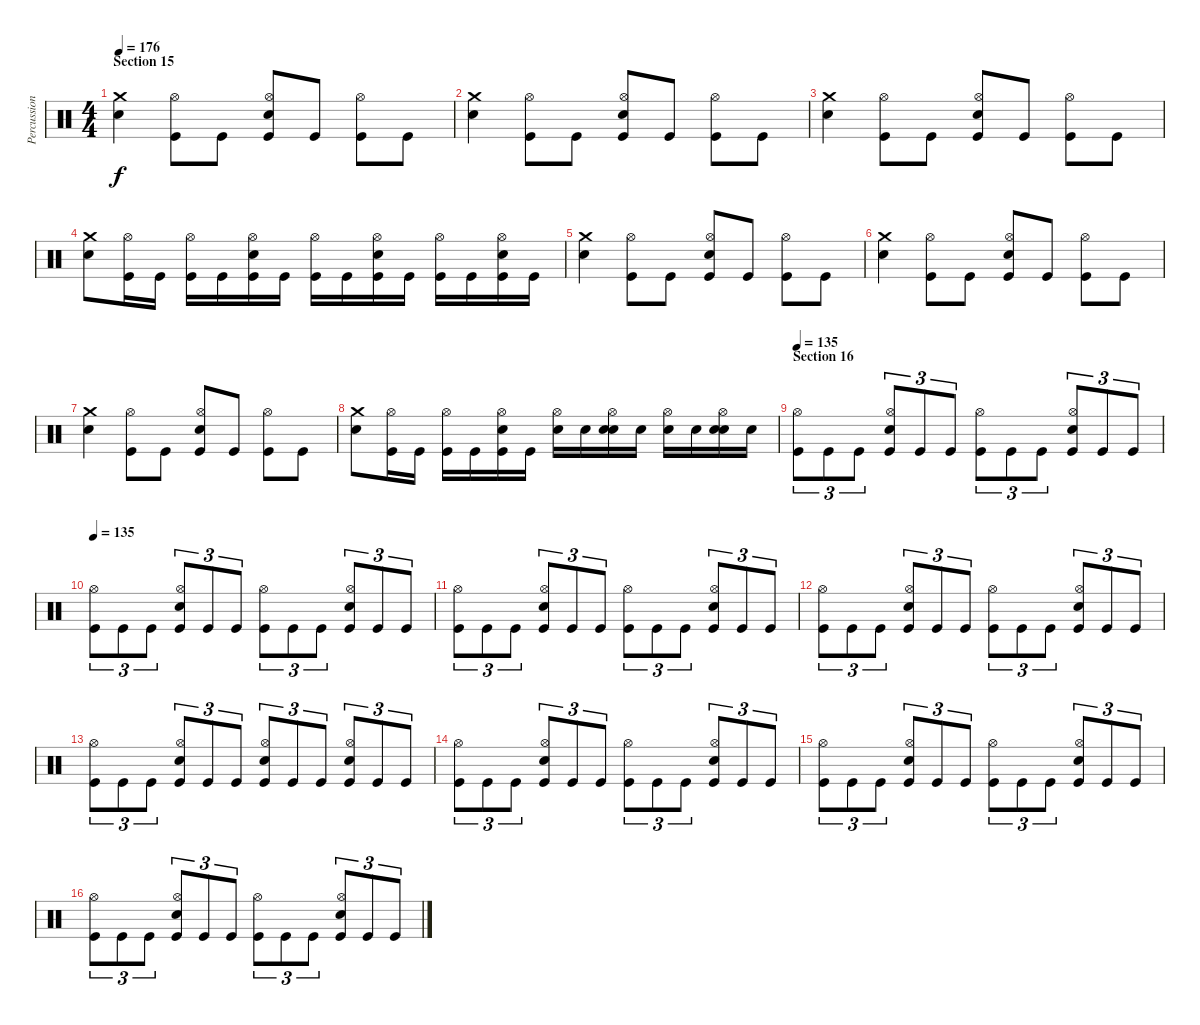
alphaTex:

\track ("Percussions" "Percussion") {instrument percussion}
\staff {score}
\articulation defaults
\ts (4 4)
\section ("" "Section 15")
\tempo 176
\clef neutral
\ks c
("Crash medium (hit)" "Electric Snare (hit)").4{dy f} ("Hi-Hat (open)" "Kick (hit)").8 "Kick (hit)".8 ("Hi-Hat (open)" "Electric Snare (hit)" "Kick (hit)").8 "Kick (hit)".8 ("Hi-Hat (open)" "Kick (hit)").8 "Kick (hit)".8 |
("Crash medium (hit)" "Electric Snare (hit)").4 ("Hi-Hat (open)" "Kick (hit)").8 "Kick (hit)".8 ("Hi-Hat (open)" "Electric Snare (hit)" "Kick (hit)").8 "Kick (hit)".8 ("Hi-Hat (open)" "Kick (hit)").8 "Kick (hit)".8 |
("Crash medium (hit)" "Electric Snare (hit)").4 ("Hi-Hat (open)" "Kick (hit)").8 "Kick (hit)".8 ("Hi-Hat (open)" "Electric Snare (hit)" "Kick (hit)").8 "Kick (hit)".8 ("Hi-Hat (open)" "Kick (hit)").8 "Kick (hit)".8 |
("Crash medium (hit)" "Electric Snare (hit)").8 ("Hi-Hat (open)" "Kick (hit)").16 "Kick (hit)".16 ("Hi-Hat (open)" "Kick (hit)").16 "Kick (hit)".16 ("Hi-Hat (open)" "Electric Snare (hit)" "Kick (hit)").16 "Kick (hit)".16 ("Hi-Hat (open)" "Kick (hit)").16 "Kick (hit)".16 ("Hi-Hat (open)" "Electric Snare (hit)" "Kick (hit)").16 "Kick (hit)".16 ("Hi-Hat (open)" "Kick (hit)").16 "Kick (hit)".16 ("Hi-Hat (open)" "Electric Snare (hit)" "Kick (hit)").16 "Kick (hit)".16 |
("Crash medium (hit)" "Electric Snare (hit)").4 ("Hi-Hat (open)" "Kick (hit)").8 "Kick (hit)".8 ("Hi-Hat (open)" "Electric Snare (hit)" "Kick (hit)").8 "Kick (hit)".8 ("Hi-Hat (open)" "Kick (hit)").8 "Kick (hit)".8 |
("Crash medium (hit)" "Electric Snare (hit)").4 ("Hi-Hat (open)" "Kick (hit)").8 "Kick (hit)".8 ("Hi-Hat (open)" "Electric Snare (hit)" "Kick (hit)").8 "Kick (hit)".8 ("Hi-Hat (open)" "Kick (hit)").8 "Kick (hit)".8 |
("Crash medium (hit)" "Electric Snare (hit)").4 ("Hi-Hat (open)" "Kick (hit)").8 "Kick (hit)".8 ("Hi-Hat (open)" "Electric Snare (hit)" "Kick (hit)").8 "Kick (hit)".8 ("Hi-Hat (open)" "Kick (hit)").8 "Kick (hit)".8 |
("Crash medium (hit)" "Electric Snare (hit)").8 ("Hi-Hat (open)" "Kick (hit)").16 "Kick (hit)".16 ("Hi-Hat (open)" "Kick (hit)").16 "Kick (hit)".16 ("Hi-Hat (open)" "Electric Snare (hit)" "Kick (hit)").16 "Kick (hit)".16 ("Hi-Hat (open)" "Electric Snare (hit)").16 "Electric Snare (hit)".16 ("Hi-Hat (open)" "Electric Snare (hit)" "Electric Snare (hit)").16 "Electric Snare (hit)".16 ("Hi-Hat (open)" "Electric Snare (hit)").16 "Electric Snare (hit)".16 ("Hi-Hat (open)" "Electric Snare (hit)" "Electric Snare (hit)").16 "Electric Snare (hit)".16 |
\section ("" "Section 16")
\tempo 135
("Hi-Hat (open)" "Kick (hit)").8{tu (3 2)} "Kick (hit)".8{tu (3 2)} "Kick (hit)".8{tu (3 2)} ("Hi-Hat (open)" "Electric Snare (hit)" "Kick (hit)").8{tu (3 2)} "Kick (hit)".8{tu (3 2)} "Kick (hit)".8{tu (3 2)} ("Hi-Hat (open)" "Kick (hit)").8{tu (3 2)} "Kick (hit)".8{tu (3 2)} "Kick (hit)".8{tu (3 2)} ("Hi-Hat (open)" "Electric Snare (hit)" "Kick (hit)").8{tu (3 2)} "Kick (hit)".8{tu (3 2)} "Kick (hit)".8{tu (3 2)} |
\tempo 135
("Hi-Hat (open)" "Kick (hit)").8{tu (3 2)} "Kick (hit)".8{tu (3 2)} "Kick (hit)".8{tu (3 2)} ("Hi-Hat (open)" "Electric Snare (hit)" "Kick (hit)").8{tu (3 2)} "Kick (hit)".8{tu (3 2)} "Kick (hit)".8{tu (3 2)} ("Hi-Hat (open)" "Kick (hit)").8{tu (3 2)} "Kick (hit)".8{tu (3 2)} "Kick (hit)".8{tu (3 2)} ("Hi-Hat (open)" "Electric Snare (hit)" "Kick (hit)").8{tu (3 2)} "Kick (hit)".8{tu (3 2)} "Kick (hit)".8{tu (3 2)} |
("Hi-Hat (open)" "Kick (hit)").8{tu (3 2)} "Kick (hit)".8{tu (3 2)} "Kick (hit)".8{tu (3 2)} ("Hi-Hat (open)" "Electric Snare (hit)" "Kick (hit)").8{tu (3 2)} "Kick (hit)".8{tu (3 2)} "Kick (hit)".8{tu (3 2)} ("Hi-Hat (open)" "Kick (hit)").8{tu (3 2)} "Kick (hit)".8{tu (3 2)} "Kick (hit)".8{tu (3 2)} ("Hi-Hat (open)" "Electric Snare (hit)" "Kick (hit)").8{tu (3 2)} "Kick (hit)".8{tu (3 2)} "Kick (hit)".8{tu (3 2)} |
("Hi-Hat (open)" "Kick (hit)").8{tu (3 2)} "Kick (hit)".8{tu (3 2)} "Kick (hit)".8{tu (3 2)} ("Hi-Hat (open)" "Electric Snare (hit)" "Kick (hit)").8{tu (3 2)} "Kick (hit)".8{tu (3 2)} "Kick (hit)".8{tu (3 2)} ("Hi-Hat (open)" "Kick (hit)").8{tu (3 2)} "Kick (hit)".8{tu (3 2)} "Kick (hit)".8{tu (3 2)} ("Hi-Hat (open)" "Electric Snare (hit)" "Kick (hit)").8{tu (3 2)} "Kick (hit)".8{tu (3 2)} "Kick (hit)".8{tu (3 2)} |
("Hi-Hat (open)" "Kick (hit)").8{tu (3 2)} "Kick (hit)".8{tu (3 2)} "Kick (hit)".8{tu (3 2)} ("Hi-Hat (open)" "Electric Snare (hit)" "Kick (hit)").8{tu (3 2)} "Kick (hit)".8{tu (3 2)} "Kick (hit)".8{tu (3 2)} ("Hi-Hat (open)" "Electric Snare (hit)" "Kick (hit)").8{tu (3 2)} "Kick (hit)".8{tu (3 2)} "Kick (hit)".8{tu (3 2)} ("Hi-Hat (open)" "Electric Snare (hit)" "Kick (hit)").8{tu (3 2)} "Kick (hit)".8{tu (3 2)} "Kick (hit)".8{tu (3 2)} |
("Hi-Hat (open)" "Kick (hit)").8{tu (3 2)} "Kick (hit)".8{tu (3 2)} "Kick (hit)".8{tu (3 2)} ("Hi-Hat (open)" "Electric Snare (hit)" "Kick (hit)").8{tu (3 2)} "Kick (hit)".8{tu (3 2)} "Kick (hit)".8{tu (3 2)} ("Hi-Hat (open)" "Kick (hit)").8{tu (3 2)} "Kick (hit)".8{tu (3 2)} "Kick (hit)".8{tu (3 2)} ("Hi-Hat (open)" "Electric Snare (hit)" "Kick (hit)").8{tu (3 2)} "Kick (hit)".8{tu (3 2)} "Kick (hit)".8{tu (3 2)} |
("Hi-Hat (open)" "Kick (hit)").8{tu (3 2)} "Kick (hit)".8{tu (3 2)} "Kick (hit)".8{tu (3 2)} ("Hi-Hat (open)" "Electric Snare (hit)" "Kick (hit)").8{tu (3 2)} "Kick (hit)".8{tu (3 2)} "Kick (hit)".8{tu (3 2)} ("Hi-Hat (open)" "Kick (hit)").8{tu (3 2)} "Kick (hit)".8{tu (3 2)} "Kick (hit)".8{tu (3 2)} ("Hi-Hat (open)" "Electric Snare (hit)" "Kick (hit)").8{tu (3 2)} "Kick (hit)".8{tu (3 2)} "Kick (hit)".8{tu (3 2)} |
("Hi-Hat (open)" "Kick (hit)").8{tu (3 2)} "Kick (hit)".8{tu (3 2)} "Kick (hit)".8{tu (3 2)} ("Hi-Hat (open)" "Electric Snare (hit)" "Kick (hit)").8{tu (3 2)} "Kick (hit)".8{tu (3 2)} "Kick (hit)".8{tu (3 2)} ("Hi-Hat (open)" "Kick (hit)").8{tu (3 2)} "Kick (hit)".8{tu (3 2)} "Kick (hit)".8{tu (3 2)} ("Hi-Hat (open)" "Electric Snare (hit)" "Kick (hit)").8{tu (3 2)} "Kick (hit)".8{tu (3 2)} "Kick (hit)".8{tu (3 2)}
